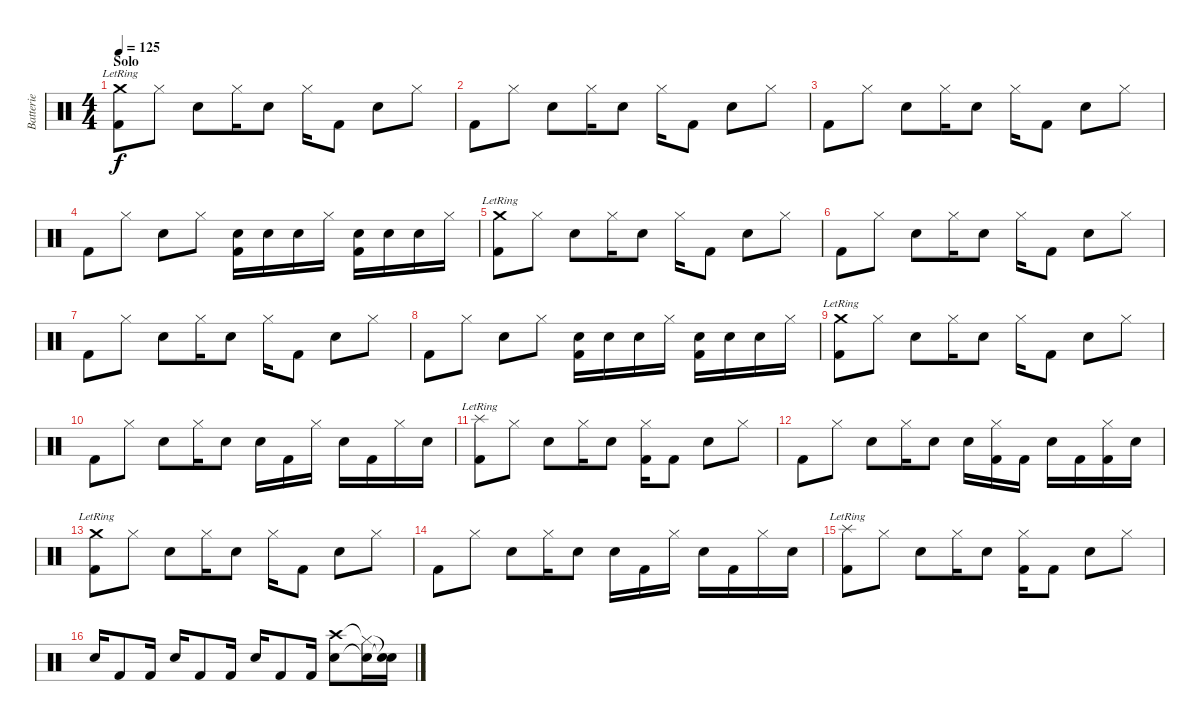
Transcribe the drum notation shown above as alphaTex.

\track ("Batterie" "Batterie") {instrument percussion}
\staff {score}
\articulation defaults
\ts (4 4)
\section ("" "Solo")
\tempo 125
\clef neutral
\ks c
("Crash medium (hit)"{lr} "Kick (hit) 2").8{dy f} "Hi-Hat (closed)".8 "Electric Snare (hit)".8 "Hi-Hat (closed)".16 "Electric Snare (hit)".8 "Hi-Hat (closed)".16 "Kick (hit) 2".8 "Electric Snare (hit)".8 "Hi-Hat (closed)".8 |
"Kick (hit) 2".8 "Hi-Hat (closed)".8 "Electric Snare (hit)".8 "Hi-Hat (closed)".16 "Electric Snare (hit)".8 "Hi-Hat (closed)".16 "Kick (hit) 2".8 "Electric Snare (hit)".8 "Hi-Hat (closed)".8 |
"Kick (hit) 2".8 "Hi-Hat (closed)".8 "Electric Snare (hit)".8 "Hi-Hat (closed)".16 "Electric Snare (hit)".8 "Hi-Hat (closed)".16 "Kick (hit) 2".8 "Electric Snare (hit)".8 "Hi-Hat (closed)".8 |
"Kick (hit) 2".8 "Hi-Hat (closed)".8 "Electric Snare (hit)".8 "Hi-Hat (closed)".8 ("Electric Snare (hit)" "Kick (hit) 2").16 "Electric Snare (hit)".16 "Electric Snare (hit)".16 "Hi-Hat (closed)".16 ("Electric Snare (hit)" "Kick (hit) 2").16 "Electric Snare (hit)".16 "Electric Snare (hit)".16 "Hi-Hat (closed)".16 |
("Crash medium (hit)"{lr} "Kick (hit) 2").8 "Hi-Hat (closed)".8 "Electric Snare (hit)".8 "Hi-Hat (closed)".16 "Electric Snare (hit)".8 "Hi-Hat (closed)".16 "Kick (hit) 2".8 "Electric Snare (hit)".8 "Hi-Hat (closed)".8 |
"Kick (hit) 2".8 "Hi-Hat (closed)".8 "Electric Snare (hit)".8 "Hi-Hat (closed)".16 "Electric Snare (hit)".8 "Hi-Hat (closed)".16 "Kick (hit) 2".8 "Electric Snare (hit)".8 "Hi-Hat (closed)".8 |
"Kick (hit) 2".8 "Hi-Hat (closed)".8 "Electric Snare (hit)".8 "Hi-Hat (closed)".16 "Electric Snare (hit)".8 "Hi-Hat (closed)".16 "Kick (hit) 2".8 "Electric Snare (hit)".8 "Hi-Hat (closed)".8 |
"Kick (hit) 2".8 "Hi-Hat (closed)".8 "Electric Snare (hit)".8 "Hi-Hat (closed)".8 ("Electric Snare (hit)" "Kick (hit) 2").16 "Electric Snare (hit)".16 "Electric Snare (hit)".16 "Hi-Hat (closed)".16 ("Electric Snare (hit)" "Kick (hit) 2").16 "Electric Snare (hit)".16 "Electric Snare (hit)".16 "Hi-Hat (closed)".16 |
("Crash medium (hit)"{lr} "Kick (hit) 2").8 "Hi-Hat (closed)".8 "Electric Snare (hit)".8 "Hi-Hat (closed)".16 "Electric Snare (hit)".8 "Hi-Hat (closed)".16 "Kick (hit) 2".8 "Electric Snare (hit)".8 "Hi-Hat (closed)".8 |
"Kick (hit) 2".8 "Hi-Hat (closed)".8 "Electric Snare (hit)".8 "Hi-Hat (closed)".16 "Electric Snare (hit)".8 "Electric Snare (hit)".16 "Kick (hit) 2".16 "Hi-Hat (closed)".16 "Electric Snare (hit)".16 "Kick (hit) 2".16 "Hi-Hat (closed)".16 "Electric Snare (hit)".16 |
("Splash (hit)"{lr} "Kick (hit) 2").8 "Hi-Hat (closed)".8 "Electric Snare (hit)".8 "Hi-Hat (closed)".16 "Electric Snare (hit)".8 ("Hi-Hat (closed)" "Kick (hit) 2").16 "Kick (hit) 2".8 "Electric Snare (hit)".8 "Hi-Hat (closed)".8 |
"Kick (hit) 2".8 "Hi-Hat (closed)".8 "Electric Snare (hit)".8 "Hi-Hat (closed)".16 "Electric Snare (hit)".8 "Electric Snare (hit)".16 ("Hi-Hat (closed)" "Kick (hit) 2").16 "Kick (hit) 2".16 "Electric Snare (hit)".16 "Kick (hit) 2".16 ("Hi-Hat (closed)" "Kick (hit) 2").16 "Electric Snare (hit)".16 |
("Crash medium (hit)"{lr} "Kick (hit) 2").8 "Hi-Hat (closed)".8 "Electric Snare (hit)".8 "Hi-Hat (closed)".16 "Electric Snare (hit)".8 "Hi-Hat (closed)".16 "Kick (hit) 2".8 "Electric Snare (hit)".8 "Hi-Hat (closed)".8 |
"Kick (hit) 2".8 "Hi-Hat (closed)".8 "Electric Snare (hit)".8 "Hi-Hat (closed)".16 "Electric Snare (hit)".8 "Electric Snare (hit)".16 "Kick (hit) 2".16 "Hi-Hat (closed)".16 "Electric Snare (hit)".16 "Kick (hit) 2".16 "Hi-Hat (closed)".16 "Electric Snare (hit)".16 |
("Splash (hit)"{lr} "Kick (hit) 2").8 "Hi-Hat (closed)".8 "Electric Snare (hit)".8 "Hi-Hat (closed)".16 "Electric Snare (hit)".8 ("Hi-Hat (closed)" "Kick (hit) 2").16 "Kick (hit) 2".8 "Electric Snare (hit)".8 "Hi-Hat (closed)".8 |
"Electric Snare (hit)".16 "Kick (hit) 2".8 "Kick (hit) 2".16 "Electric Snare (hit)".16 "Kick (hit) 2".8 "Kick (hit) 2".16 "Electric Snare (hit)".16 "Kick (hit) 2".8 "Kick (hit) 2".16 ("Electric Snare (hit)" "Crash high (hit)").8 ("Snare (hit)"{t} "Hi-Hat (closed)"{t}).16 ("Snare (hit)"{t} "Snare (hit)"{t}).16
